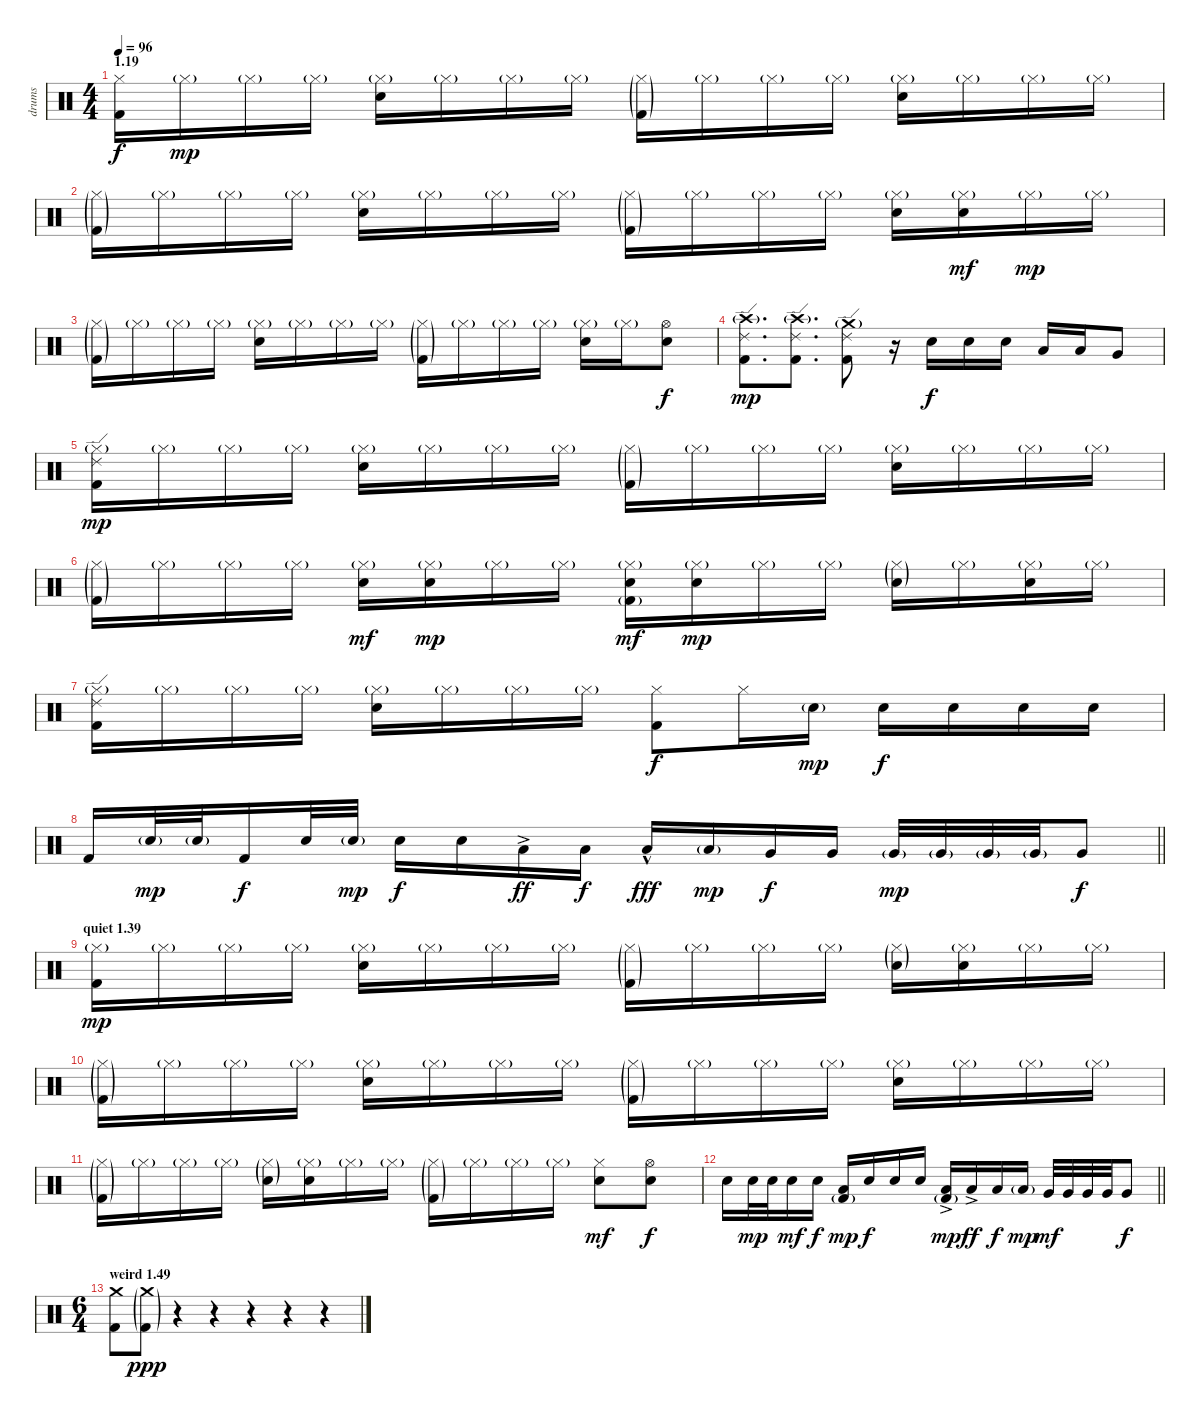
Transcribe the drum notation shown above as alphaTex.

\track ("drums" "drums") {instrument percussion}
\staff {score}
\articulation defaults
\ts (4 4)
\section ("" "1.19")
\tempo 96
\clef neutral
\ks c
("Hi-Hat (closed)" "Kick (hit) 2").16{dy f} "Hi-Hat (closed)"{g}.16{dy mp} "Hi-Hat (closed)"{g}.16 "Hi-Hat (closed)"{g}.16 ("Hi-Hat (closed)"{g} "Electric Snare (hit)").16 "Hi-Hat (closed)"{g}.16 "Hi-Hat (closed)"{g}.16 "Hi-Hat (closed)"{g}.16 ("Hi-Hat (closed)"{g} "Kick (hit) 2"{g}).16 "Hi-Hat (closed)"{g}.16 "Hi-Hat (closed)"{g}.16 "Hi-Hat (closed)"{g}.16 ("Hi-Hat (closed)"{g} "Electric Snare (hit)").16 "Hi-Hat (closed)"{g}.16 "Hi-Hat (closed)"{g}.16 "Hi-Hat (closed)"{g}.16 |
("Hi-Hat (closed)"{g} "Kick (hit) 2"{g}).16 "Hi-Hat (closed)"{g}.16 "Hi-Hat (closed)"{g}.16 "Hi-Hat (closed)"{g}.16 ("Hi-Hat (closed)"{g} "Electric Snare (hit)").16 "Hi-Hat (closed)"{g}.16 "Hi-Hat (closed)"{g}.16 "Hi-Hat (closed)"{g}.16 ("Hi-Hat (closed)"{g} "Kick (hit) 2"{g}).16 "Hi-Hat (closed)"{g}.16 "Hi-Hat (closed)"{g}.16 "Hi-Hat (closed)"{g}.16 ("Hi-Hat (closed)"{g} "Electric Snare (hit)").16 ("Hi-Hat (closed)"{g} "Electric Snare (hit)").16{dy mf} "Hi-Hat (closed)"{g}.16{dy mp} "Hi-Hat (closed)"{g}.16 |
("Hi-Hat (closed)"{g} "Kick (hit) 2"{g}).16 "Hi-Hat (closed)"{g}.16 "Hi-Hat (closed)"{g}.16 "Hi-Hat (closed)"{g}.16 ("Hi-Hat (closed)"{g} "Electric Snare (hit)").16 "Hi-Hat (closed)"{g}.16 "Hi-Hat (closed)"{g}.16 "Hi-Hat (closed)"{g}.16 ("Hi-Hat (closed)"{g} "Kick (hit) 2"{g}).16 "Hi-Hat (closed)"{g}.16 "Hi-Hat (closed)"{g}.16 "Hi-Hat (closed)"{g}.16 ("Hi-Hat (closed)"{g} "Electric Snare (hit)").16 "Hi-Hat (closed)"{g}.16 ("Hi-Hat (open)" "Electric Snare (hit)").8{dy f} |
("Ride (edge) 2" "Crash high (hit)"{g} "Kick (hit) 2").8{d dy mp} ("Ride (edge) 2" "Crash high (hit)"{g} "Kick (hit) 2").8{d} ("Ride (edge) 2" "Crash medium (hit)"{g} "Kick (hit) 2").8 r.16 "Electric Snare (hit)".16{dy f} "Electric Snare (hit)".16 "Electric Snare (hit)".16 "Low Tom (hit)".16 "Low Tom (hit)".16 "Very Low Tom (hit)".8 |
("Ride (edge) 2" "Hi-Hat (closed)"{g} "Kick (hit) 2").16{dy mp} "Hi-Hat (closed)"{g}.16 "Hi-Hat (closed)"{g}.16 "Hi-Hat (closed)"{g}.16 ("Hi-Hat (closed)"{g} "Electric Snare (hit)").16 "Hi-Hat (closed)"{g}.16 "Hi-Hat (closed)"{g}.16 "Hi-Hat (closed)"{g}.16 ("Hi-Hat (closed)"{g} "Kick (hit) 2"{g}).16 "Hi-Hat (closed)"{g}.16 "Hi-Hat (closed)"{g}.16 "Hi-Hat (closed)"{g}.16 ("Hi-Hat (closed)"{g} "Electric Snare (hit)").16 "Hi-Hat (closed)"{g}.16 "Hi-Hat (closed)"{g}.16 "Hi-Hat (closed)"{g}.16 |
("Hi-Hat (closed)"{g} "Kick (hit) 2"{g}).16 "Hi-Hat (closed)"{g}.16 "Hi-Hat (closed)"{g}.16 "Hi-Hat (closed)"{g}.16 ("Hi-Hat (closed)"{g} "Electric Snare (hit)").16{dy mf} ("Hi-Hat (closed)"{g} "Electric Snare (hit)").16{dy mp} "Hi-Hat (closed)"{g}.16 "Hi-Hat (closed)"{g}.16 ("Hi-Hat (closed)"{g} "Kick (hit) 2"{g} "Electric Snare (hit)").16{dy mf} ("Hi-Hat (closed)"{g} "Electric Snare (hit)").16{dy mp} "Hi-Hat (closed)"{g}.16 "Hi-Hat (closed)"{g}.16 ("Hi-Hat (closed)"{g} "Electric Snare (hit)"{g}).16 "Hi-Hat (closed)"{g}.16 ("Hi-Hat (closed)"{g} "Electric Snare (hit)").16 "Hi-Hat (closed)"{g}.16 |
("Ride (edge) 2" "Hi-Hat (closed)"{g} "Kick (hit) 2").16 "Hi-Hat (closed)"{g}.16 "Hi-Hat (closed)"{g}.16 "Hi-Hat (closed)"{g}.16 ("Hi-Hat (closed)"{g} "Electric Snare (hit)").16 "Hi-Hat (closed)"{g}.16 "Hi-Hat (closed)"{g}.16 "Hi-Hat (closed)"{g}.16 ("Hi-Hat (closed)" "Kick (hit) 2").8{dy f} "Hi-Hat (closed)".16 "Electric Snare (hit)"{g}.16{dy mp} "Electric Snare (hit)".16{dy f} "Electric Snare (hit)".16 "Electric Snare (hit)".16 "Electric Snare (hit)".16 |
\barLineRight lightlight "Kick (hit) 2".16 "Electric Snare (hit)"{g}.32{dy mp} "Electric Snare (hit)"{g}.32 "Kick (hit) 2".16{dy f} "Electric Snare (hit)".32 "Electric Snare (hit)"{g}.32{dy mp} "Electric Snare (hit)".16{dy f} "Electric Snare (hit)".16 "Low Tom (hit)"{ac}.16{dy ff} "Low Tom (hit)".16{dy f} "Low Tom (hit)"{hac}.16{dy fff} "Low Tom (hit)"{g}.16{dy mp} "Very Low Tom (hit)".16{dy f} "Very Low Tom (hit)".16 "Very Low Tom (hit)"{g}.32{dy mp} "Very Low Tom (hit)"{g}.32 "Very Low Tom (hit)"{g}.32 "Very Low Tom (hit)"{g}.32 "Very Low Tom (hit)".8{dy f}
|
\section ("" "quiet 1.39")
("Hi-Hat (closed)"{g} "Kick (hit) 2").16{dy mp} "Hi-Hat (closed)"{g}.16 "Hi-Hat (closed)"{g}.16 "Hi-Hat (closed)"{g}.16 ("Hi-Hat (closed)"{g} "Electric Snare (hit)").16 "Hi-Hat (closed)"{g}.16 "Hi-Hat (closed)"{g}.16 "Hi-Hat (closed)"{g}.16 ("Hi-Hat (closed)"{g} "Kick (hit) 2"{g}).16 "Hi-Hat (closed)"{g}.16 "Hi-Hat (closed)"{g}.16 "Hi-Hat (closed)"{g}.16 ("Hi-Hat (closed)"{g} "Electric Snare (hit)"{g}).16 ("Hi-Hat (closed)"{g} "Electric Snare (hit)").16 "Hi-Hat (closed)"{g}.16 "Hi-Hat (closed)"{g}.16 |
("Hi-Hat (closed)"{g} "Kick (hit) 2"{g}).16 "Hi-Hat (closed)"{g}.16 "Hi-Hat (closed)"{g}.16 "Hi-Hat (closed)"{g}.16 ("Hi-Hat (closed)"{g} "Electric Snare (hit)").16 "Hi-Hat (closed)"{g}.16 "Hi-Hat (closed)"{g}.16 "Hi-Hat (closed)"{g}.16 ("Hi-Hat (closed)"{g} "Kick (hit) 2"{g}).16 "Hi-Hat (closed)"{g}.16 "Hi-Hat (closed)"{g}.16 "Hi-Hat (closed)"{g}.16 ("Hi-Hat (closed)"{g} "Electric Snare (hit)").16 "Hi-Hat (closed)"{g}.16 "Hi-Hat (closed)"{g}.16 "Hi-Hat (closed)"{g}.16 |
("Hi-Hat (closed)"{g} "Kick (hit) 2"{g}).16 "Hi-Hat (closed)"{g}.16 "Hi-Hat (closed)"{g}.16 "Hi-Hat (closed)"{g}.16 ("Hi-Hat (closed)"{g} "Electric Snare (hit)"{g}).16 ("Hi-Hat (closed)"{g} "Electric Snare (hit)").16 "Hi-Hat (closed)"{g}.16 "Hi-Hat (closed)"{g}.16 ("Hi-Hat (closed)"{g} "Kick (hit) 2"{g}).16 "Hi-Hat (closed)"{g}.16 "Hi-Hat (closed)"{g}.16 "Hi-Hat (closed)"{g}.16 ("Hi-Hat (closed)" "Electric Snare (hit)").8{dy mf} ("Hi-Hat (open)" "Electric Snare (hit)").8{dy f} |
\barLineRight lightlight "Electric Snare (hit)".16 "Electric Snare (hit)".32{dy mp} "Electric Snare (hit)".32 "Electric Snare (hit)".16{dy mf} "Electric Snare (hit)".16{dy f}
("Low Tom (hit)" "Kick (hit) 2"{g}).16{dy mp} "Electric Snare (hit)".16{dy f} "Electric Snare (hit)".16 "Electric Snare (hit)".16 ("Low Tom (hit)"{ac} "Kick (hit) 2"{g}).16{dy mp} "Low Tom (hit)"{ac}.16{dy ff} "Low Tom (hit)".16{dy f} "Low Tom (hit)"{g}.16{dy mp} "Very Low Tom (hit)".32{dy mf} "Very Low Tom (hit)".32 "Very Low Tom (hit)".32 "Very Low Tom (hit)".32 "Very Low Tom (hit)".8{dy f} |
\ts (6 4)
\section ("" "weird 1.49")
("Crash medium (hit)" "Kick (hit) 2").8 ("Crash medium (hit)"{g} "Kick (hit) 2"{g}).8{dy ppp} r.4 r.4 r.4 r.4 r.4
